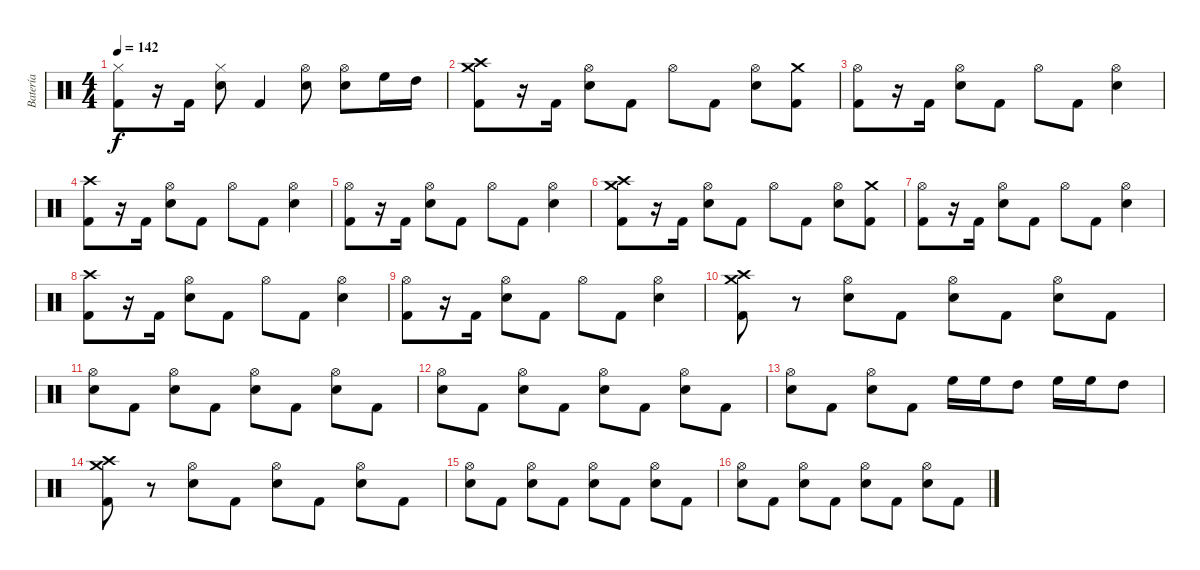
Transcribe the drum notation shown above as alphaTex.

\track ("Batería" "Batería") {instrument percussion}
\staff {score}
\articulation defaults
\ts (4 4)
\tempo 142
\clef neutral
\ks c
("Hi-Hat (closed)" "Kick (hit) 2").8{dy f} r.16 "Kick (hit) 2".16 ("Hi-Hat (closed)" "Electric Snare (hit)").8 "Kick (hit) 2".4 ("Hi-Hat (open)" "Electric Snare (hit)").8 ("Hi-Hat (open)" "Electric Snare (hit)").8 "High Floor Tom (hit)".16 "High Tom (hit)".16 |
("Crash high (hit)" "Crash medium (hit)" "Kick (hit) 2").8 r.16 "Kick (hit) 2".16 ("Hi-Hat (open)" "Electric Snare (hit)").8 "Kick (hit) 2".8 "Hi-Hat (open)".8 "Kick (hit) 2".8 ("Hi-Hat (open)" "Electric Snare (hit)").8 ("Crash medium (hit)" "Kick (hit) 2").8 |
("Hi-Hat (open)" "Kick (hit) 2").8 r.16 "Kick (hit) 2".16 ("Hi-Hat (open)" "Electric Snare (hit)").8 "Kick (hit) 2".8 "Hi-Hat (open)".8 "Kick (hit) 2".8 ("Hi-Hat (open)" "Electric Snare (hit)").4 |
("Crash high (hit)" "Kick (hit) 2").8 r.16 "Kick (hit) 2".16 ("Hi-Hat (open)" "Electric Snare (hit)").8 "Kick (hit) 2".8 "Hi-Hat (open)".8 "Kick (hit) 2".8 ("Hi-Hat (open)" "Electric Snare (hit)").4 |
("Hi-Hat (open)" "Kick (hit) 2").8 r.16 "Kick (hit) 2".16 ("Hi-Hat (open)" "Electric Snare (hit)").8 "Kick (hit) 2".8 "Hi-Hat (open)".8 "Kick (hit) 2".8 ("Hi-Hat (open)" "Electric Snare (hit)").4 |
("Crash high (hit)" "Crash medium (hit)" "Kick (hit) 2").8 r.16 "Kick (hit) 2".16 ("Hi-Hat (open)" "Electric Snare (hit)").8 "Kick (hit) 2".8 "Hi-Hat (open)".8 "Kick (hit) 2".8 ("Hi-Hat (open)" "Electric Snare (hit)").8 ("Crash medium (hit)" "Kick (hit) 2").8 |
("Hi-Hat (open)" "Kick (hit) 2").8 r.16 "Kick (hit) 2".16 ("Hi-Hat (open)" "Electric Snare (hit)").8 "Kick (hit) 2".8 "Hi-Hat (open)".8 "Kick (hit) 2".8 ("Hi-Hat (open)" "Electric Snare (hit)").4 |
("Crash high (hit)" "Kick (hit) 2").8 r.16 "Kick (hit) 2".16 ("Hi-Hat (open)" "Electric Snare (hit)").8 "Kick (hit) 2".8 "Hi-Hat (open)".8 "Kick (hit) 2".8 ("Hi-Hat (open)" "Electric Snare (hit)").4 |
("Hi-Hat (open)" "Kick (hit) 2").8 r.16 "Kick (hit) 2".16 ("Hi-Hat (open)" "Electric Snare (hit)").8 "Kick (hit) 2".8 "Hi-Hat (open)".8 "Kick (hit) 2".8 ("Hi-Hat (open)" "Electric Snare (hit)").4 |
("Crash high (hit)" "Crash medium (hit)" "Kick (hit) 2").8 r.8 ("Hi-Hat (open)" "Electric Snare (hit)").8 "Kick (hit) 2".8 ("Hi-Hat (open)" "Electric Snare (hit)").8 "Kick (hit) 2".8 ("Hi-Hat (open)" "Electric Snare (hit)").8 "Kick (hit) 2".8 |
("Hi-Hat (open)" "Electric Snare (hit)").8 "Kick (hit) 2".8 ("Hi-Hat (open)" "Electric Snare (hit)").8 "Kick (hit) 2".8 ("Hi-Hat (open)" "Electric Snare (hit)").8 "Kick (hit) 2".8 ("Hi-Hat (open)" "Electric Snare (hit)").8 "Kick (hit) 2".8 |
("Hi-Hat (open)" "Electric Snare (hit)").8 "Kick (hit) 2".8 ("Hi-Hat (open)" "Electric Snare (hit)").8 "Kick (hit) 2".8 ("Hi-Hat (open)" "Electric Snare (hit)").8 "Kick (hit) 2".8 ("Hi-Hat (open)" "Electric Snare (hit)").8 "Kick (hit) 2".8 |
("Hi-Hat (open)" "Electric Snare (hit)").8 "Kick (hit) 2".8 ("Hi-Hat (open)" "Electric Snare (hit)").8 "Kick (hit) 2".8 "High Floor Tom (hit)".16 "High Floor Tom (hit)".16 "High Tom (hit)".8 "High Floor Tom (hit)".16 "High Floor Tom (hit)".16 "High Tom (hit)".8 |
("Crash high (hit)" "Crash medium (hit)" "Kick (hit) 2").8 r.8 ("Hi-Hat (open)" "Electric Snare (hit)").8 "Kick (hit) 2".8 ("Hi-Hat (open)" "Electric Snare (hit)").8 "Kick (hit) 2".8 ("Hi-Hat (open)" "Electric Snare (hit)").8 "Kick (hit) 2".8 |
("Hi-Hat (open)" "Electric Snare (hit)").8 "Kick (hit) 2".8 ("Hi-Hat (open)" "Electric Snare (hit)").8 "Kick (hit) 2".8 ("Hi-Hat (open)" "Electric Snare (hit)").8 "Kick (hit) 2".8 ("Hi-Hat (open)" "Electric Snare (hit)").8 "Kick (hit) 2".8 |
("Hi-Hat (open)" "Electric Snare (hit)").8 "Kick (hit) 2".8 ("Hi-Hat (open)" "Electric Snare (hit)").8 "Kick (hit) 2".8 ("Hi-Hat (open)" "Electric Snare (hit)").8 "Kick (hit) 2".8 ("Hi-Hat (open)" "Electric Snare (hit)").8 "Kick (hit) 2".8
